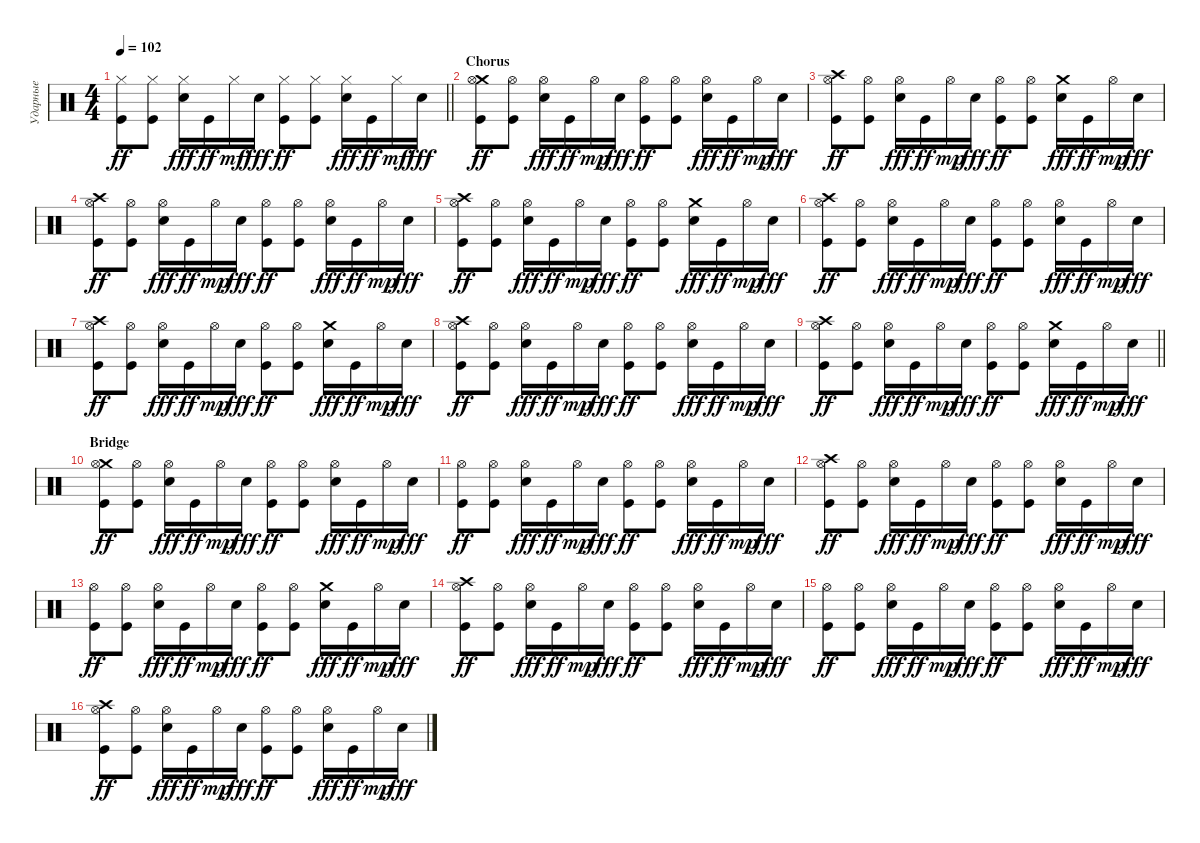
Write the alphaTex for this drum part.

\track ("Ударные" "Ударные") {instrument percussion}
\staff {score}
\articulation defaults
\ts (4 4)
\tempo 102
\clef neutral
\barLineRight lightlight
\ks c
("Hi-Hat (closed)" "Kick (hit)").8{dy ff} ("Hi-Hat (closed)" "Kick (hit)").8 ("Hi-Hat (closed)" "Electric Snare (hit)").16{dy fff} "Kick (hit)".16{dy ff} "Hi-Hat (closed)".16{dy mf} "Electric Snare (hit)".16{dy fff} ("Hi-Hat (closed)" "Kick (hit)").8{dy ff} ("Hi-Hat (closed)" "Kick (hit)").8 ("Hi-Hat (closed)" "Electric Snare (hit)").16{dy fff} "Kick (hit)".16{dy ff} "Hi-Hat (closed)".16{dy mf} "Electric Snare (hit)".16{dy fff} |
\section ("" "Chorus")
("Crash medium (hit)" "Hi-Hat (open)" "Kick (hit)").8{dy ff} ("Hi-Hat (open)" "Kick (hit)").8 ("Hi-Hat (open)" "Electric Snare (hit)").16{dy fff} "Kick (hit)".16{dy ff} "Hi-Hat (open)".16{dy mp} "Electric Snare (hit)".16{dy fff} ("Hi-Hat (open)" "Kick (hit)").8{dy ff} ("Hi-Hat (open)" "Kick (hit)").8 ("Hi-Hat (open)" "Electric Snare (hit)").16{dy fff} "Kick (hit)".16{dy ff} "Hi-Hat (open)".16{dy mp} "Electric Snare (hit)".16{dy fff} |
("Crash high (hit)" "Hi-Hat (open)" "Kick (hit)").8{dy ff} ("Hi-Hat (open)" "Kick (hit)").8 ("Hi-Hat (open)" "Electric Snare (hit)").16{dy fff} "Kick (hit)".16{dy ff} "Hi-Hat (open)".16{dy mp} "Electric Snare (hit)".16{dy fff} ("Hi-Hat (open)" "Kick (hit)").8{dy ff} ("Hi-Hat (open)" "Kick (hit)").8 ("Crash medium (hit)" "Electric Snare (hit)").16{dy fff} "Kick (hit)".16{dy ff} "Hi-Hat (open)".16{dy mp} "Electric Snare (hit)".16{dy fff} |
("Crash high (hit)" "Hi-Hat (open)" "Kick (hit)").8{dy ff} ("Hi-Hat (open)" "Kick (hit)").8 ("Hi-Hat (open)" "Electric Snare (hit)").16{dy fff} "Kick (hit)".16{dy ff} "Hi-Hat (open)".16{dy mp} "Electric Snare (hit)".16{dy fff} ("Hi-Hat (open)" "Kick (hit)").8{dy ff} ("Hi-Hat (open)" "Kick (hit)").8 ("Hi-Hat (open)" "Electric Snare (hit)").16{dy fff} "Kick (hit)".16{dy ff} "Hi-Hat (open)".16{dy mp} "Electric Snare (hit)".16{dy fff} |
("Crash high (hit)" "Hi-Hat (open)" "Kick (hit)").8{dy ff} ("Hi-Hat (open)" "Kick (hit)").8 ("Hi-Hat (open)" "Electric Snare (hit)").16{dy fff} "Kick (hit)".16{dy ff} "Hi-Hat (open)".16{dy mp} "Electric Snare (hit)".16{dy fff} ("Hi-Hat (open)" "Kick (hit)").8{dy ff} ("Hi-Hat (open)" "Kick (hit)").8 ("Crash medium (hit)" "Electric Snare (hit)").16{dy fff} "Kick (hit)".16{dy ff} "Hi-Hat (open)".16{dy mp} "Electric Snare (hit)".16{dy fff} |
("Crash high (hit)" "Hi-Hat (open)" "Kick (hit)").8{dy ff} ("Hi-Hat (open)" "Kick (hit)").8 ("Hi-Hat (open)" "Electric Snare (hit)").16{dy fff} "Kick (hit)".16{dy ff} "Hi-Hat (open)".16{dy mp} "Electric Snare (hit)".16{dy fff} ("Hi-Hat (open)" "Kick (hit)").8{dy ff} ("Hi-Hat (open)" "Kick (hit)").8 ("Hi-Hat (open)" "Electric Snare (hit)").16{dy fff} "Kick (hit)".16{dy ff} "Hi-Hat (open)".16{dy mp} "Electric Snare (hit)".16{dy fff} |
("Crash high (hit)" "Hi-Hat (open)" "Kick (hit)").8{dy ff} ("Hi-Hat (open)" "Kick (hit)").8 ("Hi-Hat (open)" "Electric Snare (hit)").16{dy fff} "Kick (hit)".16{dy ff} "Hi-Hat (open)".16{dy mp} "Electric Snare (hit)".16{dy fff} ("Hi-Hat (open)" "Kick (hit)").8{dy ff} ("Hi-Hat (open)" "Kick (hit)").8 ("Crash medium (hit)" "Electric Snare (hit)").16{dy fff} "Kick (hit)".16{dy ff} "Hi-Hat (open)".16{dy mp} "Electric Snare (hit)".16{dy fff} |
("Crash high (hit)" "Hi-Hat (open)" "Kick (hit)").8{dy ff} ("Hi-Hat (open)" "Kick (hit)").8 ("Hi-Hat (open)" "Electric Snare (hit)").16{dy fff} "Kick (hit)".16{dy ff} "Hi-Hat (open)".16{dy mp} "Electric Snare (hit)".16{dy fff} ("Hi-Hat (open)" "Kick (hit)").8{dy ff} ("Hi-Hat (open)" "Kick (hit)").8 ("Hi-Hat (open)" "Electric Snare (hit)").16{dy fff} "Kick (hit)".16{dy ff} "Hi-Hat (open)".16{dy mp} "Electric Snare (hit)".16{dy fff} |
\barLineRight lightlight
("Crash high (hit)" "Hi-Hat (open)" "Kick (hit)").8{dy ff} ("Hi-Hat (open)" "Kick (hit)").8 ("Hi-Hat (open)" "Electric Snare (hit)").16{dy fff} "Kick (hit)".16{dy ff} "Hi-Hat (open)".16{dy mp} "Electric Snare (hit)".16{dy fff} ("Hi-Hat (open)" "Kick (hit)").8{dy ff} ("Hi-Hat (open)" "Kick (hit)").8 ("Crash medium (hit)" "Electric Snare (hit)").16{dy fff} "Kick (hit)".16{dy ff} "Hi-Hat (open)".16{dy mp} "Electric Snare (hit)".16{dy fff} |
\section ("" "Bridge")
("Crash medium (hit)" "Hi-Hat (open)" "Kick (hit)").8{dy ff} ("Hi-Hat (open)" "Kick (hit)").8 ("Hi-Hat (open)" "Electric Snare (hit)").16{dy fff} "Kick (hit)".16{dy ff} "Hi-Hat (open)".16{dy mp} "Electric Snare (hit)".16{dy fff} ("Hi-Hat (open)" "Kick (hit)").8{dy ff} ("Hi-Hat (open)" "Kick (hit)").8 ("Hi-Hat (open)" "Electric Snare (hit)").16{dy fff} "Kick (hit)".16{dy ff} "Hi-Hat (open)".16{dy mp} "Electric Snare (hit)".16{dy fff} |
("Hi-Hat (open)" "Kick (hit)").8{dy ff} ("Hi-Hat (open)" "Kick (hit)").8 ("Hi-Hat (open)" "Electric Snare (hit)").16{dy fff} "Kick (hit)".16{dy ff} "Hi-Hat (open)".16{dy mp} "Electric Snare (hit)".16{dy fff} ("Hi-Hat (open)" "Kick (hit)").8{dy ff} ("Hi-Hat (open)" "Kick (hit)").8 ("Hi-Hat (open)" "Electric Snare (hit)").16{dy fff} "Kick (hit)".16{dy ff} "Hi-Hat (open)".16{dy mp} "Electric Snare (hit)".16{dy fff} |
("Crash high (hit)" "Hi-Hat (open)" "Kick (hit)").8{dy ff} ("Hi-Hat (open)" "Kick (hit)").8 ("Hi-Hat (open)" "Electric Snare (hit)").16{dy fff} "Kick (hit)".16{dy ff} "Hi-Hat (open)".16{dy mp} "Electric Snare (hit)".16{dy fff} ("Hi-Hat (open)" "Kick (hit)").8{dy ff} ("Hi-Hat (open)" "Kick (hit)").8 ("Hi-Hat (open)" "Electric Snare (hit)").16{dy fff} "Kick (hit)".16{dy ff} "Hi-Hat (open)".16{dy mp} "Electric Snare (hit)".16{dy fff} |
("Hi-Hat (open)" "Kick (hit)").8{dy ff} ("Hi-Hat (open)" "Kick (hit)").8 ("Hi-Hat (open)" "Electric Snare (hit)").16{dy fff} "Kick (hit)".16{dy ff} "Hi-Hat (open)".16{dy mp} "Electric Snare (hit)".16{dy fff} ("Hi-Hat (open)" "Kick (hit)").8{dy ff} ("Hi-Hat (open)" "Kick (hit)").8 ("Crash medium (hit)" "Electric Snare (hit)").16{dy fff} "Kick (hit)".16{dy ff} "Hi-Hat (open)".16{dy mp} "Electric Snare (hit)".16{dy fff} |
("Crash high (hit)" "Hi-Hat (open)" "Kick (hit)").8{dy ff} ("Hi-Hat (open)" "Kick (hit)").8 ("Hi-Hat (open)" "Electric Snare (hit)").16{dy fff} "Kick (hit)".16{dy ff} "Hi-Hat (open)".16{dy mp} "Electric Snare (hit)".16{dy fff} ("Hi-Hat (open)" "Kick (hit)").8{dy ff} ("Hi-Hat (open)" "Kick (hit)").8 ("Hi-Hat (open)" "Electric Snare (hit)").16{dy fff} "Kick (hit)".16{dy ff} "Hi-Hat (open)".16{dy mp} "Electric Snare (hit)".16{dy fff} |
("Hi-Hat (open)" "Kick (hit)").8{dy ff} ("Hi-Hat (open)" "Kick (hit)").8 ("Hi-Hat (open)" "Electric Snare (hit)").16{dy fff} "Kick (hit)".16{dy ff} "Hi-Hat (open)".16{dy mp} "Electric Snare (hit)".16{dy fff} ("Hi-Hat (open)" "Kick (hit)").8{dy ff} ("Hi-Hat (open)" "Kick (hit)").8 ("Hi-Hat (open)" "Electric Snare (hit)").16{dy fff} "Kick (hit)".16{dy ff} "Hi-Hat (open)".16{dy mp} "Electric Snare (hit)".16{dy fff} |
("Crash high (hit)" "Hi-Hat (open)" "Kick (hit)").8{dy ff} ("Hi-Hat (open)" "Kick (hit)").8 ("Hi-Hat (open)" "Electric Snare (hit)").16{dy fff} "Kick (hit)".16{dy ff} "Hi-Hat (open)".16{dy mp} "Electric Snare (hit)".16{dy fff} ("Hi-Hat (open)" "Kick (hit)").8{dy ff} ("Hi-Hat (open)" "Kick (hit)").8 ("Hi-Hat (open)" "Electric Snare (hit)").16{dy fff} "Kick (hit)".16{dy ff} "Hi-Hat (open)".16{dy mp} "Electric Snare (hit)".16{dy fff}
